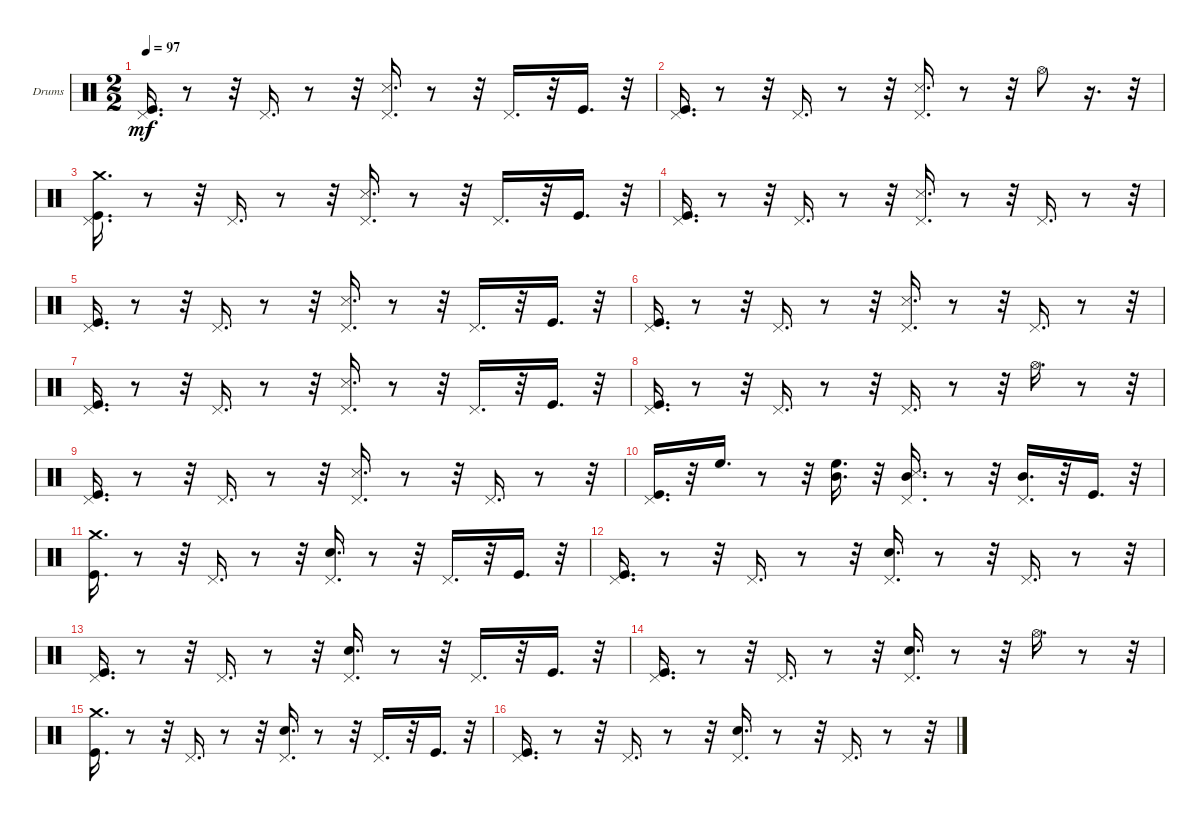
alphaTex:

\bracketExtendMode groupsimilarinstruments
\firstSystemTrackNameOrientation horizontal
\otherSystemsTrackNameOrientation horizontal
\track ("Percusion" "Drums") {instrument percussion}
\staff {score}
\articulation defaults
\ts (2 2)
\tempo 97
\clef neutral
\ks c
("Pedal Hi-Hat (hit)" "Kick (hit)").16{d dy mf} r.8 r.32 "Pedal Hi-Hat (hit)".16{d} r.8 r.32 ("Pedal Hi-Hat (hit)" "Snare (side stick) 3").16{d} r.8 r.32 "Pedal Hi-Hat (hit)".16{d} r.32 "Kick (hit)".16{d} r.32 |
("Pedal Hi-Hat (hit)" "Kick (hit)").16{d} r.8 r.32 "Pedal Hi-Hat (hit)".16{d} r.8 r.32 ("Pedal Hi-Hat (hit)" "Snare (side stick) 3").16{d} r.8 r.32 "Hi-Hat (open)".8 r.16{d} r.32 |
("Crash medium (hit)" "Pedal Hi-Hat (hit)" "Kick (hit)").16{d} r.8 r.32 "Pedal Hi-Hat (hit)".16{d} r.8 r.32 ("Pedal Hi-Hat (hit)" "Snare (side stick) 3").16{d} r.8 r.32 "Pedal Hi-Hat (hit)".16{d} r.32 "Kick (hit)".16{d} r.32 |
("Pedal Hi-Hat (hit)" "Kick (hit)").16{d} r.8 r.32 "Pedal Hi-Hat (hit)".16{d} r.8 r.32 ("Pedal Hi-Hat (hit)" "Snare (side stick) 3").16{d} r.8 r.32 "Pedal Hi-Hat (hit)".16{d} r.8 r.32 |
("Pedal Hi-Hat (hit)" "Kick (hit)").16{d} r.8 r.32 "Pedal Hi-Hat (hit)".16{d} r.8 r.32 ("Pedal Hi-Hat (hit)" "Snare (side stick) 3").16{d} r.8 r.32 "Pedal Hi-Hat (hit)".16{d} r.32 "Kick (hit)".16{d} r.32 |
("Pedal Hi-Hat (hit)" "Kick (hit)").16{d} r.8 r.32 "Pedal Hi-Hat (hit)".16{d} r.8 r.32 ("Pedal Hi-Hat (hit)" "Snare (side stick) 3").16{d} r.8 r.32 "Pedal Hi-Hat (hit)".16{d} r.8 r.32 |
("Pedal Hi-Hat (hit)" "Kick (hit)").16{d} r.8 r.32 "Pedal Hi-Hat (hit)".16{d} r.8 r.32 ("Pedal Hi-Hat (hit)" "Snare (side stick) 3").16{d} r.8 r.32 "Pedal Hi-Hat (hit)".16{d} r.32 "Kick (hit)".16{d} r.32 |
("Pedal Hi-Hat (hit)" "Kick (hit)").16{d} r.8 r.32 "Pedal Hi-Hat (hit)".16{d} r.8 r.32 "Pedal Hi-Hat (hit)".16{d} r.8 r.32 "Hi-Hat (open)".16{d} r.8 r.32 |
("Pedal Hi-Hat (hit)" "Kick (hit)").16{d} r.8 r.32 "Pedal Hi-Hat (hit)".16{d} r.8 r.32 ("Pedal Hi-Hat (hit)" "Snare (side stick) 3").16{d} r.8 r.32 "Pedal Hi-Hat (hit)".16{d} r.8 r.32 |
("Pedal Hi-Hat (hit)" "Kick (hit)").16{d} r.32 "High Floor Tom (hit)".16{d} r.8 r.32 ("Mid Tom (hit)" "High Floor Tom (hit)").16{d} r.32 ("Pedal Hi-Hat (hit)" "Snare (side stick) 3" "Mid Tom (hit)").16{d} r.8 r.32 ("Pedal Hi-Hat (hit)" "Mid Tom (hit)").16{d} r.32 "Kick (hit)".16{d} r.32 |
("Crash medium (hit)" "Kick (hit)").16{d} r.8 r.32 "Pedal Hi-Hat (hit)".16{d} r.8 r.32 ("Pedal Hi-Hat (hit)" "Snare (hit) 2").16{d} r.8 r.32 "Pedal Hi-Hat (hit)".16{d} r.32 "Kick (hit)".16{d} r.32 |
("Pedal Hi-Hat (hit)" "Kick (hit)").16{d} r.8 r.32 "Pedal Hi-Hat (hit)".16{d} r.8 r.32 ("Pedal Hi-Hat (hit)" "Snare (hit) 2").16{d} r.8 r.32 "Pedal Hi-Hat (hit)".16{d} r.8 r.32 |
("Pedal Hi-Hat (hit)" "Kick (hit)").16{d} r.8 r.32 "Pedal Hi-Hat (hit)".16{d} r.8 r.32 ("Pedal Hi-Hat (hit)" "Snare (hit) 2").16{d} r.8 r.32 "Pedal Hi-Hat (hit)".16{d} r.32 "Kick (hit)".16{d} r.32 |
("Pedal Hi-Hat (hit)" "Kick (hit)").16{d} r.8 r.32 "Pedal Hi-Hat (hit)".16{d} r.8 r.32 ("Pedal Hi-Hat (hit)" "Snare (hit) 2").16{d} r.8 r.32 "Hi-Hat (open)".16{d} r.8 r.32 |
("Crash medium (hit)" "Kick (hit)").16{d} r.8 r.32 "Pedal Hi-Hat (hit)".16{d} r.8 r.32 ("Pedal Hi-Hat (hit)" "Snare (hit) 2").16{d} r.8 r.32 "Pedal Hi-Hat (hit)".16{d} r.32 "Kick (hit)".16{d} r.32 |
("Pedal Hi-Hat (hit)" "Kick (hit)").16{d} r.8 r.32 "Pedal Hi-Hat (hit)".16{d} r.8 r.32 ("Pedal Hi-Hat (hit)" "Snare (hit) 2").16{d} r.8 r.32 "Pedal Hi-Hat (hit)".16{d} r.8 r.32
